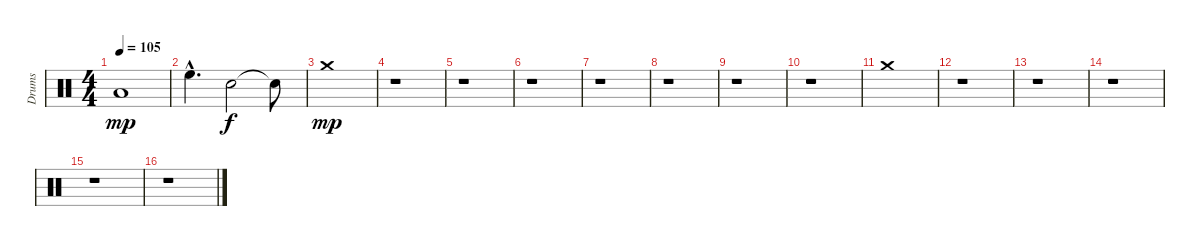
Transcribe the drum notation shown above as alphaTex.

\track ("Drums" "Drums") {instrument percussion}
\staff {score}
\articulation defaults
\ts (4 4)
\tempo 105
\clef neutral
\ks c "Low Tom (hit)".1{dy mp}
|
"High Floor Tom (hit)"{hac}.4{d} "Snare (hit) 2".2{dy f} "Snare (hit)"{t}.8 |
"Crash medium (hit)".1{dy mp} |
r.1 |
r.1 |
r.1 |
r.1 |
r.1 |
r.1 |
r.1 |
"Crash medium (hit)".1 |
r.1 |
r.1 |
r.1 |
r.1 |
r.1
